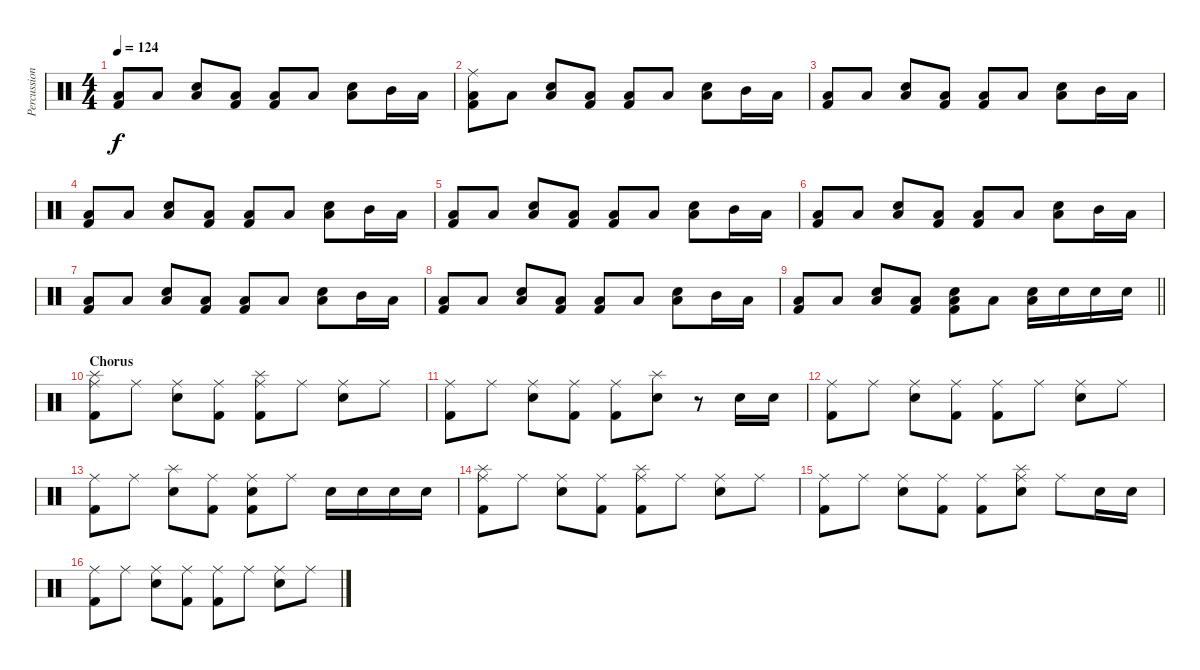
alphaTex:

\track ("Percussioni" "Percussion") {instrument percussion}
\staff {score}
\articulation defaults
\ts (4 4)
\tempo 124
\clef neutral
\ks c
("Low Floor Tom (hit)" "Kick (hit) 2").8{dy f} "Low Floor Tom (hit)".8 ("Snare (hit) 2" "Low Floor Tom (hit)").8 ("Low Floor Tom (hit)" "Kick (hit) 2").8 ("Low Floor Tom (hit)" "Kick (hit) 2").8 "Low Floor Tom (hit)".8 ("Snare (hit) 2" "Low Floor Tom (hit)").8 "Mid Tom (hit)".16 "Low Floor Tom (hit)".16 |
("Ride (middle)" "Low Floor Tom (hit)" "Kick (hit) 2").8 "Low Floor Tom (hit)".8 ("Snare (hit) 2" "Low Floor Tom (hit)").8 ("Low Floor Tom (hit)" "Kick (hit) 2").8 ("Low Floor Tom (hit)" "Kick (hit) 2").8 "Low Floor Tom (hit)".8 ("Snare (hit) 2" "Low Floor Tom (hit)").8 "Mid Tom (hit)".16 "Low Floor Tom (hit)".16 |
("Low Floor Tom (hit)" "Kick (hit) 2").8 "Low Floor Tom (hit)".8 ("Snare (hit) 2" "Low Floor Tom (hit)").8 ("Low Floor Tom (hit)" "Kick (hit) 2").8 ("Low Floor Tom (hit)" "Kick (hit) 2").8 "Low Floor Tom (hit)".8 ("Snare (hit) 2" "Low Floor Tom (hit)").8 "Mid Tom (hit)".16 "Low Floor Tom (hit)".16 |
("Low Floor Tom (hit)" "Kick (hit) 2").8 "Low Floor Tom (hit)".8 ("Snare (hit) 2" "Low Floor Tom (hit)").8 ("Low Floor Tom (hit)" "Kick (hit) 2").8 ("Low Floor Tom (hit)" "Kick (hit) 2").8 "Low Floor Tom (hit)".8 ("Snare (hit) 2" "Low Floor Tom (hit)").8 "Mid Tom (hit)".16 "Low Floor Tom (hit)".16 |
("Low Floor Tom (hit)" "Kick (hit) 2").8 "Low Floor Tom (hit)".8 ("Snare (hit) 2" "Low Floor Tom (hit)").8 ("Low Floor Tom (hit)" "Kick (hit) 2").8 ("Low Floor Tom (hit)" "Kick (hit) 2").8 "Low Floor Tom (hit)".8 ("Snare (hit) 2" "Low Floor Tom (hit)").8 "Mid Tom (hit)".16 "Low Floor Tom (hit)".16 |
("Low Floor Tom (hit)" "Kick (hit) 2").8 "Low Floor Tom (hit)".8 ("Snare (hit) 2" "Low Floor Tom (hit)").8 ("Low Floor Tom (hit)" "Kick (hit) 2").8 ("Low Floor Tom (hit)" "Kick (hit) 2").8 "Low Floor Tom (hit)".8 ("Snare (hit) 2" "Low Floor Tom (hit)").8 "Mid Tom (hit)".16 "Low Floor Tom (hit)".16 |
("Low Floor Tom (hit)" "Kick (hit) 2").8 "Low Floor Tom (hit)".8 ("Snare (hit) 2" "Low Floor Tom (hit)").8 ("Low Floor Tom (hit)" "Kick (hit) 2").8 ("Low Floor Tom (hit)" "Kick (hit) 2").8 "Low Floor Tom (hit)".8 ("Snare (hit) 2" "Low Floor Tom (hit)").8 "Mid Tom (hit)".16 "Low Floor Tom (hit)".16 |
("Low Floor Tom (hit)" "Kick (hit) 2").8 "Low Floor Tom (hit)".8 ("Snare (hit) 2" "Low Floor Tom (hit)").8 ("Low Floor Tom (hit)" "Kick (hit) 2").8 ("Low Floor Tom (hit)" "Kick (hit) 2").8 "Low Floor Tom (hit)".8 ("Snare (hit) 2" "Low Floor Tom (hit)").8 "Mid Tom (hit)".16 "Low Floor Tom (hit)".16 |
\barLineRight lightlight
("Low Floor Tom (hit)" "Kick (hit) 2").8 "Low Floor Tom (hit)".8 ("Snare (hit) 2" "Low Floor Tom (hit)").8 ("Low Floor Tom (hit)" "Kick (hit) 2").8 ("Snare (hit) 2" "Low Floor Tom (hit)" "Kick (hit) 2").8 "Low Floor Tom (hit)".8 ("Snare (hit) 2" "Low Floor Tom (hit)").16 "Snare (hit) 2".16 "Snare (hit) 2".16 "Snare (hit) 2".16 |
\section ("" "Chorus")
("Ride (middle)" "Splash (hit)" "Kick (hit) 2").8 "Ride (middle)".8 ("Ride (middle)" "Snare (hit) 2").8 ("Ride (middle)" "Kick (hit) 2").8 ("Ride (middle)" "Splash (hit)" "Kick (hit) 2").8 "Ride (middle)".8 ("Ride (middle)" "Snare (hit) 2").8 "Ride (middle)".8 |
("Ride (middle)" "Kick (hit) 2").8 "Ride (middle)".8 ("Ride (middle)" "Snare (hit) 2").8 ("Ride (middle)" "Kick (hit) 2").8 ("Ride (middle)" "Kick (hit) 2").8 ("Splash (hit)" "Snare (hit) 2").8 r.8 "Snare (hit) 2".16 "Snare (hit) 2".16 |
("Ride (middle)" "Kick (hit) 2").8 "Ride (middle)".8 ("Ride (middle)" "Snare (hit) 2").8 ("Ride (middle)" "Kick (hit) 2").8 ("Ride (middle)" "Kick (hit) 2").8 "Ride (middle)".8 ("Ride (middle)" "Snare (hit) 2").8 "Ride (middle)".8 |
("Ride (middle)" "Kick (hit) 2").8 "Ride (middle)".8 ("Splash (hit)" "Snare (hit) 2").8 ("Ride (middle)" "Kick (hit) 2").8 ("Ride (middle)" "Snare (hit) 2" "Kick (hit) 2").8 "Ride (middle)".8 "Snare (hit) 2".16 "Snare (hit) 2".16 "Snare (hit) 2".16 "Snare (hit) 2".16 |
("Ride (middle)" "Splash (hit)" "Kick (hit) 2").8 "Ride (middle)".8 ("Ride (middle)" "Snare (hit) 2").8 ("Ride (middle)" "Kick (hit) 2").8 ("Ride (middle)" "Splash (hit)" "Kick (hit) 2").8 "Ride (middle)".8 ("Ride (middle)" "Snare (hit) 2").8 "Ride (middle)".8 |
("Ride (middle)" "Kick (hit) 2").8 "Ride (middle)".8 ("Ride (middle)" "Snare (hit) 2").8 ("Ride (middle)" "Kick (hit) 2").8 ("Ride (middle)" "Kick (hit) 2").8 ("Ride (middle)" "Splash (hit)" "Snare (hit) 2").8 "Ride (middle)".8 "Snare (hit) 2".16 "Snare (hit) 2".16 |
("Ride (middle)" "Kick (hit) 2").8 "Ride (middle)".8 ("Ride (middle)" "Snare (hit) 2").8 ("Ride (middle)" "Kick (hit) 2").8 ("Ride (middle)" "Kick (hit) 2").8 "Ride (middle)".8 ("Ride (middle)" "Snare (hit) 2").8 "Ride (middle)".8
